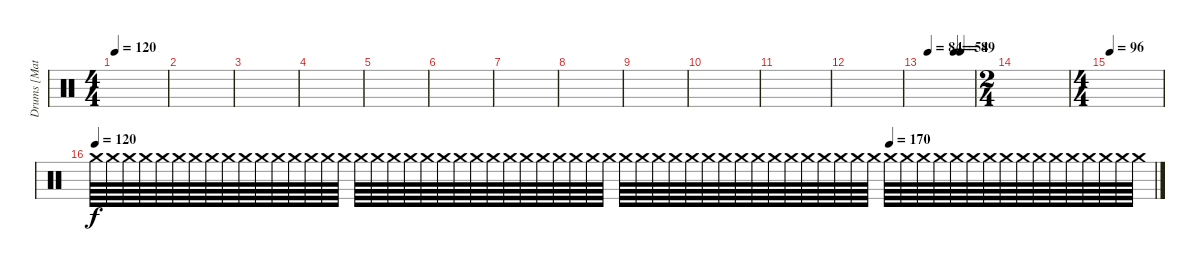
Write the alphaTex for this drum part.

\track ("Drums [Matt]" "Drums [Mat") {instrument percussion}
\staff {score}
\articulation defaults
\ts (4 4)
\tempo 120
\clef neutral
\ks c
|
|
|
|
|
|
|
|
|
|
|
|
\tempo (84 0.125)
\tempo (54 0.625)
\tempo (89 0.75)
|
\ts (2 4)
|
\ts (4 4)
\tempo 96
|
\tempo 120
\tempo (170 0.75)
"Crash medium (hit)".64{volume 8} "Crash medium (hit)".64 "Crash medium (hit)".64 "Crash medium (hit)".64 "Crash medium (hit)".64 "Crash medium (hit)".64 "Crash medium (hit)".64 "Crash medium (hit)".64 "Crash medium (hit)".64 "Crash medium (hit)".64 "Crash medium (hit)".64 "Crash medium (hit)".64 "Crash medium (hit)".64 "Crash medium (hit)".64 "Crash medium (hit)".64 "Crash medium (hit)".64 "Crash medium (hit)".64 "Crash medium (hit)".64 "Crash medium (hit)".64 "Crash medium (hit)".64 "Crash medium (hit)".64 "Crash medium (hit)".64 "Crash medium (hit)".64 "Crash medium (hit)".64 "Crash medium (hit)".64 "Crash medium (hit)".64 "Crash medium (hit)".64 "Crash medium (hit)".64 "Crash medium (hit)".64 "Crash medium (hit)".64 "Crash medium (hit)".64 "Crash medium (hit)".64 "Crash medium (hit)".64 "Crash medium (hit)".64 "Crash medium (hit)".64 "Crash medium (hit)".64 "Crash medium (hit)".64 "Crash medium (hit)".64 "Crash medium (hit)".64 "Crash medium (hit)".64 "Crash medium (hit)".64 "Crash medium (hit)".64 "Crash medium (hit)".64 "Crash medium (hit)".64 "Crash medium (hit)".64 "Crash medium (hit)".64 "Crash medium (hit)".64 "Crash medium (hit)".64 "Crash medium (hit)".64 "Crash medium (hit)".64 "Crash medium (hit)".64 "Crash medium (hit)".64 "Crash medium (hit)".64 "Crash medium (hit)".64 "Crash medium (hit)".64 "Crash medium (hit)".64 "Crash medium (hit)".64 "Crash medium (hit)".64 "Crash medium (hit)".64 "Crash medium (hit)".64 "Crash medium (hit)".64 "Crash medium (hit)".64 "Crash medium (hit)".64 "Crash medium (hit)".64
